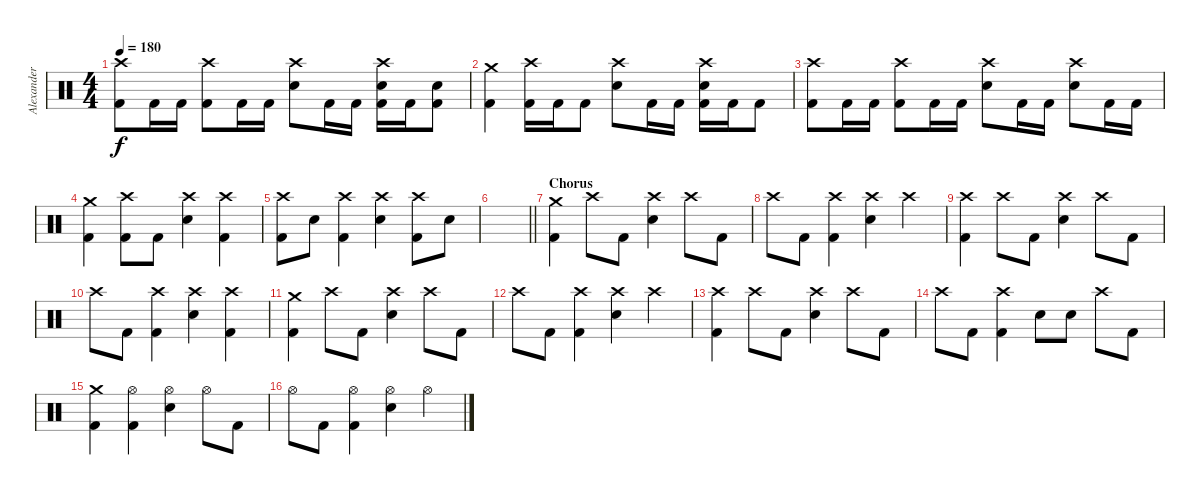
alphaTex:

\track ("Alexander Sveningsson" "Alexander ") {instrument percussion}
\staff {score}
\articulation defaults
\ts (4 4)
\tempo 180
\clef neutral
\ks c
("Crash high (hit)" "Kick (hit) 2").8{dy f} "Kick (hit) 2".16 "Kick (hit) 2".16 ("Crash high (hit)" "Kick (hit) 2").8 "Kick (hit) 2".16 "Kick (hit) 2".16 ("Crash high (hit)" "Electric Snare (hit)").8 "Kick (hit) 2".16 "Kick (hit) 2".16 ("Crash high (hit)" "Electric Snare (hit)" "Kick (hit) 2").16 "Kick (hit) 2".16 ("Electric Snare (hit)" "Kick (hit) 2").8 |
("Crash medium (hit)" "Kick (hit) 2").4 ("Crash high (hit)" "Kick (hit) 2").16 "Kick (hit) 2".16 "Kick (hit) 2".8 ("Crash high (hit)" "Electric Snare (hit)").8 "Kick (hit) 2".16 "Kick (hit) 2".16 ("Crash high (hit)" "Electric Snare (hit)" "Kick (hit) 2").16 "Kick (hit) 2".16 "Kick (hit) 2".8 |
("Crash high (hit)" "Kick (hit) 2").8 "Kick (hit) 2".16 "Kick (hit) 2".16 ("Crash high (hit)" "Kick (hit) 2").8 "Kick (hit) 2".16 "Kick (hit) 2".16 ("Crash high (hit)" "Electric Snare (hit)").8 "Kick (hit) 2".16 "Kick (hit) 2".16 ("Crash high (hit)" "Electric Snare (hit)").8 "Kick (hit) 2".16 "Kick (hit) 2".16 |
("Crash medium (hit)" "Kick (hit) 2").4 ("Crash high (hit)" "Kick (hit) 2").8 "Kick (hit) 2".8 ("Crash high (hit)" "Electric Snare (hit)").4 ("Crash high (hit)" "Kick (hit) 2").4 |
("Crash high (hit)" "Kick (hit) 2").8 "Electric Snare (hit)".8 ("Crash high (hit)" "Kick (hit) 2").4 ("Crash high (hit)" "Electric Snare (hit)").4 ("Crash high (hit)" "Kick (hit) 2").8 "Electric Snare (hit)".8 |
\barLineRight lightlight
|
\section ("" "Chorus")
("Crash medium (hit)" "Kick (hit) 2").4 "Crash high (hit)".8 "Kick (hit) 2".8 ("Crash high (hit)" "Electric Snare (hit)").4 "Crash high (hit)".8 "Kick (hit) 2".8 |
"Crash high (hit)".8 "Kick (hit) 2".8 ("Crash high (hit)" "Kick (hit) 2").4 ("Crash high (hit)" "Electric Snare (hit)").4 "Crash high (hit)".4 |
("Crash high (hit)" "Kick (hit) 2").4 "Crash high (hit)".8 "Kick (hit) 2".8 ("Crash high (hit)" "Electric Snare (hit)").4 "Crash high (hit)".8 "Kick (hit) 2".8 |
"Crash high (hit)".8 "Kick (hit) 2".8 ("Crash high (hit)" "Kick (hit) 2").4 ("Crash high (hit)" "Electric Snare (hit)").4 ("Crash high (hit)" "Kick (hit) 2").4 |
("Crash medium (hit)" "Kick (hit) 2").4 "Crash high (hit)".8 "Kick (hit) 2".8 ("Crash high (hit)" "Electric Snare (hit)").4 "Crash high (hit)".8 "Kick (hit) 2".8 |
"Crash high (hit)".8 "Kick (hit) 2".8 ("Crash high (hit)" "Kick (hit) 2").4 ("Crash high (hit)" "Electric Snare (hit)").4 "Crash high (hit)".4 |
("Crash high (hit)" "Kick (hit) 2").4 "Crash high (hit)".8 "Kick (hit) 2".8 ("Crash high (hit)" "Electric Snare (hit)").4 "Crash high (hit)".8 "Kick (hit) 2".8 |
"Crash high (hit)".8 "Kick (hit) 2".8 ("Crash high (hit)" "Kick (hit) 2").4 "Electric Snare (hit)".8 "Electric Snare (hit)".8 "Crash high (hit)".8 "Kick (hit) 2".8 |
("Crash medium (hit)" "Kick (hit) 2").4 ("Hi-Hat (open)" "Kick (hit) 2").4 ("Hi-Hat (open)" "Electric Snare (hit)").4 "Hi-Hat (open)".8 "Kick (hit) 2".8 |
"Hi-Hat (open)".8 "Kick (hit) 2".8 ("Hi-Hat (open)" "Kick (hit) 2").4 ("Hi-Hat (open)" "Electric Snare (hit)").4 "Hi-Hat (open)".4
